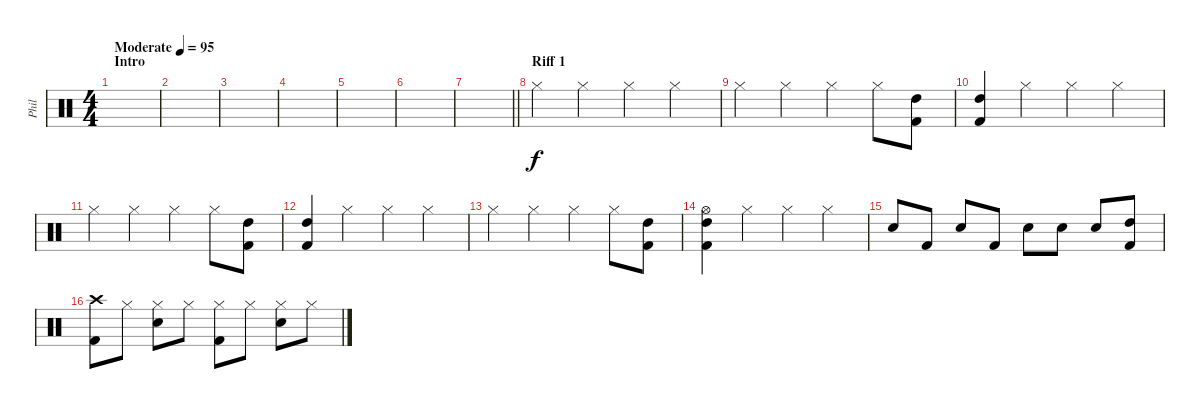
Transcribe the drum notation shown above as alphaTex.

\track ("Phil" "Phil") {instrument percussion}
\staff {score}
\articulation defaults
\ts (4 4)
\section ("" "Intro")
\tempo (95 "Moderate")
\clef neutral
\ks c
|
|
|
|
|
|
\barLineRight lightlight
|
\section ("" "Riff 1")
"Hi-Hat (closed)".4 "Hi-Hat (closed)".4 "Hi-Hat (closed)".4 "Hi-Hat (closed)".4 |
"Hi-Hat (closed)".4 "Hi-Hat (closed)".4 "Hi-Hat (closed)".4 "Hi-Hat (closed)".8 ("Kick (hit) 2" "High Tom (hit)").8 |
("Kick (hit) 2" "High Tom (hit)").4 "Hi-Hat (closed)".4 "Hi-Hat (closed)".4 "Hi-Hat (closed)".4 |
"Hi-Hat (closed)".4 "Hi-Hat (closed)".4 "Hi-Hat (closed)".4 "Hi-Hat (closed)".8 ("Kick (hit) 2" "High Tom (hit)").8 |
("Kick (hit) 2" "High Tom (hit)").4 "Hi-Hat (closed)".4 "Hi-Hat (closed)".4 "Hi-Hat (closed)".4 |
"Hi-Hat (closed)".4 "Hi-Hat (closed)".4 "Hi-Hat (closed)".4 "Hi-Hat (closed)".8 ("Kick (hit) 2" "High Tom (hit)").8 |
("Kick (hit) 2" "High Tom (hit)" "Hi-Hat (open)").4 "Hi-Hat (closed)".4 "Hi-Hat (closed)".4 "Hi-Hat (closed)".4 |
"Electric Snare (hit)".8 "Kick (hit) 2".8 "Electric Snare (hit)".8 "Kick (hit) 2".8 "Electric Snare (hit)".8 "Electric Snare (hit)".8 "Electric Snare (hit)".8 ("Kick (hit) 2" "High Tom (hit)").8 |
("Kick (hit) 2" "Crash high (hit)").8 "Hi-Hat (closed)".8 ("Electric Snare (hit)" "Hi-Hat (closed)").8 "Hi-Hat (closed)".8 ("Kick (hit) 2" "Hi-Hat (closed)").8 "Hi-Hat (closed)".8 ("Electric Snare (hit)" "Hi-Hat (closed)").8 "Hi-Hat (closed)".8
